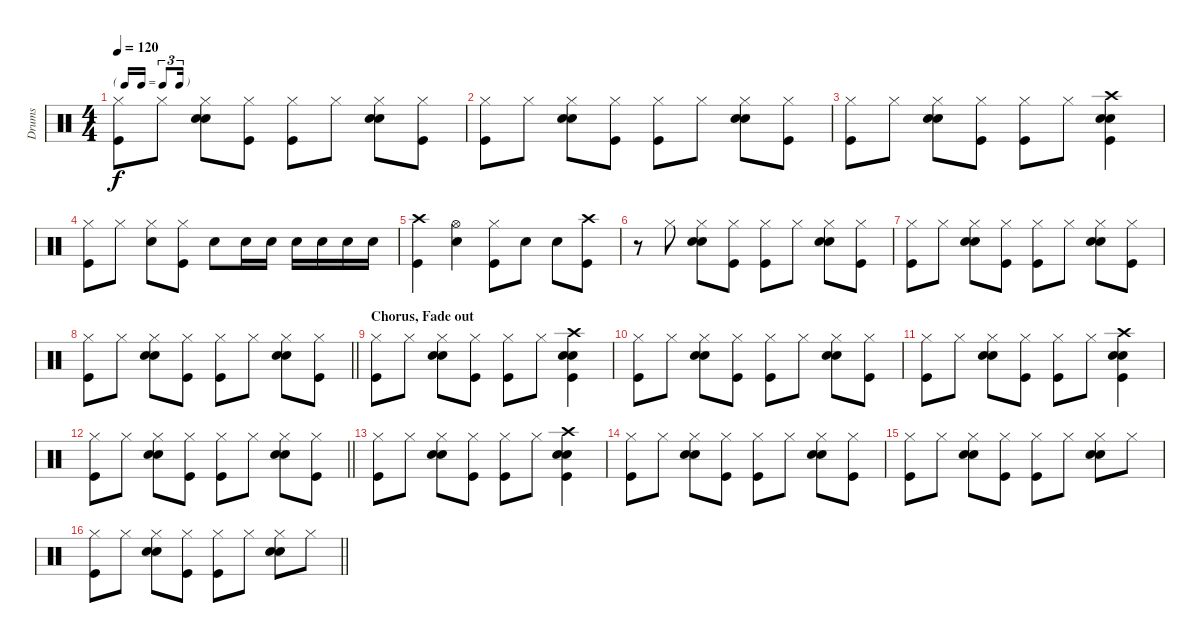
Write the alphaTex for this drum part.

\track ("Drums" "Drums") {instrument percussion}
\staff {score}
\articulation defaults
\ts (4 4)
\tf triplet16th
\tempo 120
\clef neutral
\ks c
("Hi-Hat (closed)" "Kick (hit)").8{dy f} "Hi-Hat (closed)".8 ("Hi-Hat (closed)" "Snare (hit) 2" "Hand Clap (hit)").8 ("Hi-Hat (closed)" "Kick (hit)").8 ("Hi-Hat (closed)" "Kick (hit)").8 "Hi-Hat (closed)".8 ("Hi-Hat (closed)" "Snare (hit) 2" "Hand Clap (hit)").8 ("Hi-Hat (closed)" "Kick (hit)").8 |
("Hi-Hat (closed)" "Kick (hit)").8 "Hi-Hat (closed)".8 ("Hi-Hat (closed)" "Snare (hit) 2" "Hand Clap (hit)").8 ("Hi-Hat (closed)" "Kick (hit)").8 ("Hi-Hat (closed)" "Kick (hit)").8 "Hi-Hat (closed)".8 ("Hi-Hat (closed)" "Snare (hit) 2" "Hand Clap (hit)").8 ("Hi-Hat (closed)" "Kick (hit)").8 |
("Hi-Hat (closed)" "Kick (hit)").8 "Hi-Hat (closed)".8 ("Hi-Hat (closed)" "Snare (hit) 2" "Hand Clap (hit)").8 ("Hi-Hat (closed)" "Kick (hit)").8 ("Hi-Hat (closed)" "Kick (hit)").8 "Hi-Hat (closed)".8 ("Crash high (hit)" "Snare (hit) 2" "Hand Clap (hit)" "Kick (hit)").4 |
("Hi-Hat (closed)" "Kick (hit)").8 "Hi-Hat (closed)".8 ("Hi-Hat (closed)" "Snare (hit) 2").8 ("Hi-Hat (closed)" "Kick (hit)").8 "Snare (hit) 2".8 "Snare (hit) 2".16 "Snare (hit) 2".16 "Snare (hit) 2".16 "Snare (hit) 2".16 "Snare (hit) 2".16 "Snare (hit) 2".16 |
("Crash high (hit)" "Kick (hit)").4 ("Hi-Hat (open)" "Snare (hit) 2").4 ("Hi-Hat (closed)" "Kick (hit)").8 "Snare (hit) 2".8 "Snare (hit) 2".8 ("Crash high (hit)" "Kick (hit)").8 |
r.8 "Hi-Hat (closed)".8 ("Hi-Hat (closed)" "Snare (hit) 2" "Hand Clap (hit)").8 ("Hi-Hat (closed)" "Kick (hit)").8 ("Hi-Hat (closed)" "Kick (hit)").8 "Hi-Hat (closed)".8 ("Hi-Hat (closed)" "Snare (hit) 2" "Hand Clap (hit)").8 ("Hi-Hat (closed)" "Kick (hit)").8 |
("Hi-Hat (closed)" "Kick (hit)").8 "Hi-Hat (closed)".8 ("Hi-Hat (closed)" "Snare (hit) 2" "Hand Clap (hit)").8 ("Hi-Hat (closed)" "Kick (hit)").8 ("Hi-Hat (closed)" "Kick (hit)").8 "Hi-Hat (closed)".8 ("Hi-Hat (closed)" "Snare (hit) 2" "Hand Clap (hit)").8 ("Hi-Hat (closed)" "Kick (hit)").8 |
\barLineRight lightlight
("Hi-Hat (closed)" "Kick (hit)").8 "Hi-Hat (closed)".8 ("Hi-Hat (closed)" "Snare (hit) 2" "Hand Clap (hit)").8 ("Hi-Hat (closed)" "Kick (hit)").8 ("Hi-Hat (closed)" "Kick (hit)").8 "Hi-Hat (closed)".8 ("Hi-Hat (closed)" "Snare (hit) 2" "Hand Clap (hit)").8 ("Hi-Hat (closed)" "Kick (hit)").8 |
\section ("" "Chorus, Fade out")
("Hi-Hat (closed)" "Kick (hit)").8 "Hi-Hat (closed)".8 ("Hi-Hat (closed)" "Snare (hit) 2" "Hand Clap (hit)").8 ("Hi-Hat (closed)" "Kick (hit)").8 ("Hi-Hat (closed)" "Kick (hit)").8 "Hi-Hat (closed)".8 ("Crash high (hit)" "Snare (hit) 2" "Hand Clap (hit)" "Kick (hit)").4 |
("Hi-Hat (closed)" "Kick (hit)").8 "Hi-Hat (closed)".8 ("Hi-Hat (closed)" "Snare (hit) 2" "Hand Clap (hit)").8 ("Hi-Hat (closed)" "Kick (hit)").8 ("Hi-Hat (closed)" "Kick (hit)").8 "Hi-Hat (closed)".8 ("Hi-Hat (closed)" "Snare (hit) 2" "Hand Clap (hit)").8 ("Hi-Hat (closed)" "Kick (hit)").8 |
("Hi-Hat (closed)" "Kick (hit)").8 "Hi-Hat (closed)".8 ("Hi-Hat (closed)" "Snare (hit) 2" "Hand Clap (hit)").8 ("Hi-Hat (closed)" "Kick (hit)").8 ("Hi-Hat (closed)" "Kick (hit)").8 "Hi-Hat (closed)".8 ("Crash high (hit)" "Snare (hit) 2" "Hand Clap (hit)" "Kick (hit)").4 |
\barLineRight lightlight
("Hi-Hat (closed)" "Kick (hit)").8 "Hi-Hat (closed)".8 ("Hi-Hat (closed)" "Snare (hit) 2" "Hand Clap (hit)").8 ("Hi-Hat (closed)" "Kick (hit)").8 ("Hi-Hat (closed)" "Kick (hit)").8 "Hi-Hat (closed)".8 ("Hi-Hat (closed)" "Snare (hit) 2" "Hand Clap (hit)").8 ("Hi-Hat (closed)" "Kick (hit)").8 |
("Hi-Hat (closed)" "Kick (hit)").8 "Hi-Hat (closed)".8 ("Hi-Hat (closed)" "Snare (hit) 2" "Hand Clap (hit)").8 ("Hi-Hat (closed)" "Kick (hit)").8 ("Hi-Hat (closed)" "Kick (hit)").8 "Hi-Hat (closed)".8 ("Crash high (hit)" "Snare (hit) 2" "Hand Clap (hit)" "Kick (hit)").4 |
("Hi-Hat (closed)" "Kick (hit)").8 "Hi-Hat (closed)".8 ("Hi-Hat (closed)" "Snare (hit) 2" "Hand Clap (hit)").8 ("Hi-Hat (closed)" "Kick (hit)").8 ("Hi-Hat (closed)" "Kick (hit)").8 "Hi-Hat (closed)".8 ("Hi-Hat (closed)" "Snare (hit) 2" "Hand Clap (hit)").8 ("Hi-Hat (closed)" "Kick (hit)").8 |
("Hi-Hat (closed)" "Kick (hit)").8 "Hi-Hat (closed)".8 ("Hi-Hat (closed)" "Snare (hit) 2" "Hand Clap (hit)").8 ("Hi-Hat (closed)" "Kick (hit)").8 ("Hi-Hat (closed)" "Kick (hit)").8 "Hi-Hat (closed)".8 ("Hi-Hat (closed)" "Snare (hit) 2" "Hand Clap (hit)").8 "Hi-Hat (closed)".8 |
\barLineRight lightlight
("Hi-Hat (closed)" "Kick (hit)").8 "Hi-Hat (closed)".8 ("Hi-Hat (closed)" "Snare (hit) 2" "Hand Clap (hit)").8 ("Hi-Hat (closed)" "Kick (hit)").8 ("Hi-Hat (closed)" "Kick (hit)").8 "Hi-Hat (closed)".8 ("Hi-Hat (closed)" "Snare (hit) 2" "Hand Clap (hit)").8 "Hi-Hat (closed)".8
